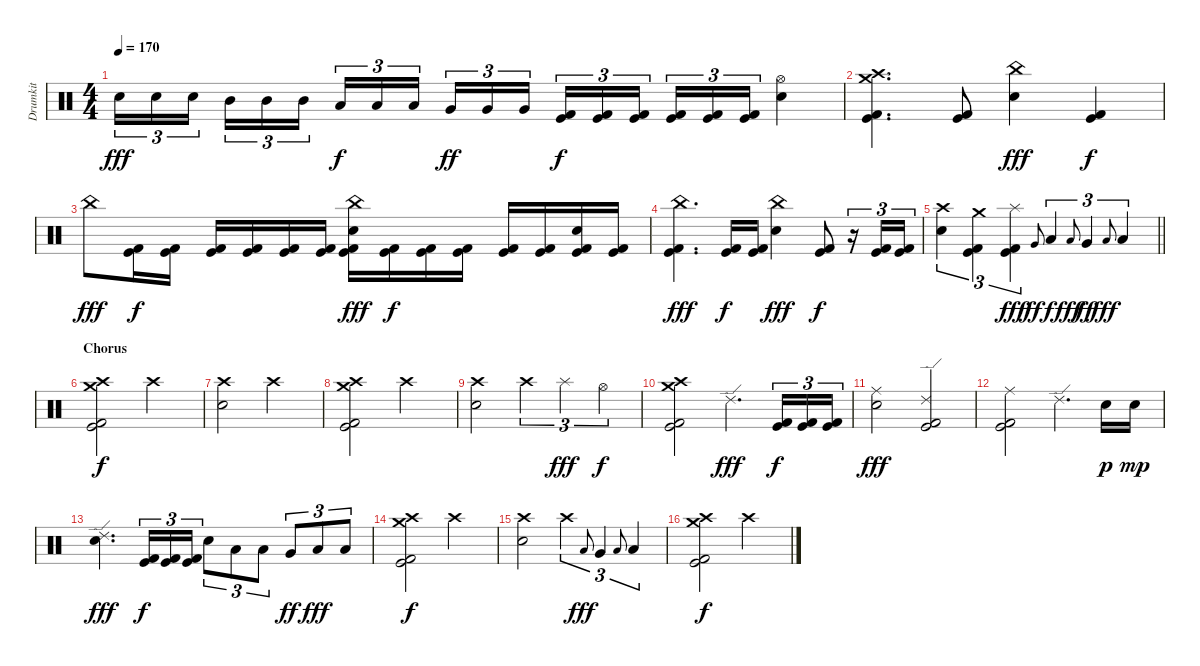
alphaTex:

\track ("Drumkit" "Drumkit") {instrument percussion}
\staff {score}
\articulation defaults
\ts (4 4)
\tempo 170
\clef neutral
\ks c "Electric Snare (hit)".16{tu (3 2) dy fff} "Electric Snare (hit)".16{tu (3 2)} "Electric Snare (hit)".16{tu (3 2) beam splitsecondary} "Mid Tom (hit)".16{tu (3 2)} "Mid Tom (hit)".16{tu (3 2)} "Mid Tom (hit)".16{tu (3 2)} "Low Tom (hit)".16{tu (3 2) dy f} "Low Tom (hit)".16{tu (3 2)} "Low Tom (hit)".16{tu (3 2) beam splitsecondary} "Very Low Tom (hit)".16{tu (3 2) dy ff} "Very Low Tom (hit)".16{tu (3 2)} "Very Low Tom (hit)".16{tu (3 2)}
("Kick (hit)" "Kick (hit) 2").16{tu (3 2) dy f} ("Kick (hit)" "Kick (hit) 2").16{tu (3 2)} ("Kick (hit)" "Kick (hit) 2").16{tu (3 2) beam splitsecondary} ("Kick (hit)" "Kick (hit) 2").16{tu (3 2)} ("Kick (hit)" "Kick (hit) 2").16{tu (3 2)} ("Kick (hit)" "Kick (hit) 2").16{tu (3 2)} ("Hi-Hat (open)" "Electric Snare (hit)").4 |
("Crash high (hit)" "Crash medium (hit)" "Kick (hit)" "Kick (hit) 2").4{d} ("Kick (hit)" "Kick (hit) 2").8 ("China (hit)" "Electric Snare (hit)").4{dy fff} ("Kick (hit)" "Kick (hit) 2").4{dy f} |
"China (hit)".8{dy fff} ("Kick (hit)" "Kick (hit) 2").16{dy f} ("Kick (hit)" "Kick (hit) 2").16 ("Kick (hit)" "Kick (hit) 2").16 ("Kick (hit)" "Kick (hit) 2").16 ("Kick (hit)" "Kick (hit) 2").16 ("Kick (hit)" "Kick (hit) 2").16 ("China (hit)" "Electric Snare (hit)" "Kick (hit)" "Kick (hit) 2").16{dy fff} ("Kick (hit)" "Kick (hit) 2").16{dy f} ("Kick (hit)" "Kick (hit) 2").16 ("Kick (hit)" "Kick (hit) 2").16 ("Kick (hit)" "Kick (hit) 2").16 ("Kick (hit)" "Kick (hit) 2").16 ("Electric Snare (hit)" "Kick (hit)" "Kick (hit) 2").16 ("Kick (hit)" "Kick (hit) 2").16 |
("China (hit)" "Kick (hit)" "Kick (hit) 2").4{d dy fff} ("Kick (hit)" "Kick (hit) 2").16{dy f} ("Kick (hit)" "Kick (hit) 2").16 ("China (hit)" "Electric Snare (hit)").4{dy fff} ("Kick (hit)" "Kick (hit) 2").8{dy f} r.16{tu (3 2)} ("Kick (hit)" "Kick (hit) 2").16{tu (3 2)} ("Kick (hit)" "Kick (hit) 2").16{tu (3 2)} |
\barLineRight lightlight
("Crash high (hit)" "Electric Snare (hit)").4{tu (3 2)} ("Crash medium (hit)" "Kick (hit)" "Kick (hit) 2").4{tu (3 2)} ("Splash (hit)" "Kick (hit)" "Kick (hit) 2").4{tu (3 2) dy fff} "Very Low Tom (hit)".8{gr onbeat dy ff} "Low Tom (hit)".4{tu (3 2) dy f} "Low Tom (hit)".8{gr onbeat dy fff} "Very Low Tom (hit)".4{tu (3 2) dy ff} "Low Floor Tom (hit)".8{gr onbeat dy fff} "Low Floor Tom (hit)".4{tu (3 2)} |
\section ("" "Chorus")
("Crash high (hit)" "Crash medium (hit)" "Kick (hit)" "Kick (hit) 2").2{dy f} "Crash high (hit)".2 |
("Crash high (hit)" "Electric Snare (hit)").2 "Crash high (hit)".2 |
("Crash high (hit)" "Crash medium (hit)" "Kick (hit)" "Kick (hit) 2").2 "Crash high (hit)".2 |
("Crash high (hit)" "Electric Snare (hit)").2 "Crash high (hit)".4{tu (3 2)} "Splash (hit)".4{tu (3 2) dy fff} "Hi-Hat (open)".4{tu (3 2) dy f} |
("Crash high (hit)" "Crash medium (hit)" "Kick (hit)" "Kick (hit) 2").2 "Ride (edge) 2".4{d dy fff} ("Kick (hit)" "Kick (hit) 2").16{tu (3 2) dy f} ("Kick (hit)" "Kick (hit) 2").16{tu (3 2)} ("Kick (hit)" "Kick (hit) 2").16{tu (3 2)} |
("Ride (middle)" "Electric Snare (hit)").2{dy fff} ("Ride (edge) 2" "Kick (hit)" "Kick (hit) 2").2 |
("Ride (middle)" "Kick (hit)" "Kick (hit) 2").2 "Ride (edge) 2".4{d} "Electric Snare (hit)".16{dy p} "Electric Snare (hit)".16{dy mp} |
("Ride (edge) 2" "Electric Snare (hit)").4{d dy fff} ("Kick (hit)" "Kick (hit) 2").16{tu (3 2) dy f} ("Kick (hit)" "Kick (hit) 2").16{tu (3 2)} ("Kick (hit)" "Kick (hit) 2").16{tu (3 2)} "Electric Snare (hit)".8{tu (3 2)} "Low Tom (hit)".8{tu (3 2)} "Low Tom (hit)".8{tu (3 2)} "Very Low Tom (hit)".8{tu (3 2) dy ff} "Low Floor Tom (hit)".8{tu (3 2) dy fff} "Low Floor Tom (hit)".8{tu (3 2)} |
("Crash high (hit)" "Crash medium (hit)" "Kick (hit)" "Kick (hit) 2").2{dy f} "Crash high (hit)".2 |
("Crash high (hit)" "Electric Snare (hit)").2 "Crash high (hit)".4{tu (3 2)} "Low Tom (hit)".8{gr onbeat dy fff} "Very Low Tom (hit)".4{tu (3 2)} "Low Floor Tom (hit)".8{gr onbeat} "Low Floor Tom (hit)".4{tu (3 2)} |
("Crash high (hit)" "Crash medium (hit)" "Kick (hit)" "Kick (hit) 2").2{dy f} "Crash high (hit)".2
